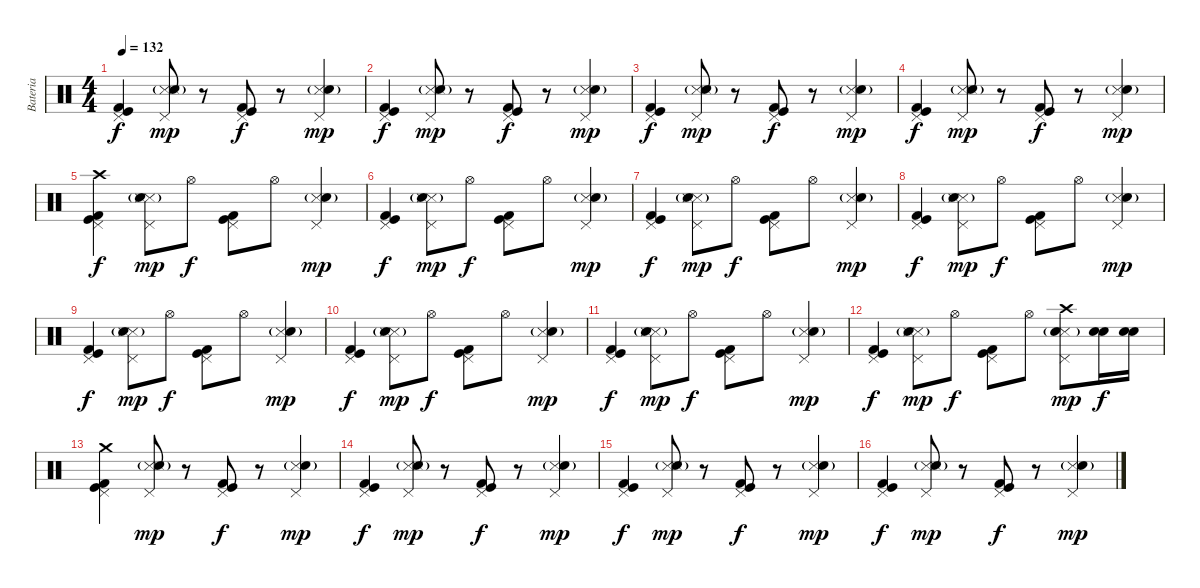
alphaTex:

\track ("Bateria" "Bateria") {instrument percussion}
\staff {score}
\articulation defaults
\ts (4 4)
\tempo 132
\clef neutral
\ks c
("Pedal Hi-Hat (hit)" "Kick (hit) 2" "Kick (hit)").4{dy f} ("Pedal Hi-Hat (hit)" "Snare (side stick) 3" "Snare (side stick) 3" "Electric Snare (hit)"{g}).8{dy mp} r.8 ("Pedal Hi-Hat (hit)" "Kick (hit) 2" "Kick (hit)").8{dy f} r.8 ("Pedal Hi-Hat (hit)" "Snare (side stick) 3" "Electric Snare (hit)"{g}).4{dy mp} |
("Pedal Hi-Hat (hit)" "Kick (hit) 2" "Kick (hit)").4{dy f} ("Pedal Hi-Hat (hit)" "Snare (side stick) 3" "Snare (side stick) 3" "Electric Snare (hit)"{g}).8{dy mp} r.8 ("Pedal Hi-Hat (hit)" "Kick (hit) 2" "Kick (hit)").8{dy f} r.8 ("Pedal Hi-Hat (hit)" "Snare (side stick) 3" "Electric Snare (hit)"{g}).4{dy mp} |
("Pedal Hi-Hat (hit)" "Kick (hit) 2" "Kick (hit)").4{dy f} ("Pedal Hi-Hat (hit)" "Snare (side stick) 3" "Snare (side stick) 3" "Electric Snare (hit)"{g}).8{dy mp} r.8 ("Pedal Hi-Hat (hit)" "Kick (hit) 2" "Kick (hit)").8{dy f} r.8 ("Pedal Hi-Hat (hit)" "Snare (side stick) 3" "Electric Snare (hit)"{g}).4{dy mp} |
("Pedal Hi-Hat (hit)" "Kick (hit) 2" "Kick (hit)").4{dy f} ("Pedal Hi-Hat (hit)" "Snare (side stick) 3" "Snare (side stick) 3" "Electric Snare (hit)"{g}).8{dy mp} r.8 ("Pedal Hi-Hat (hit)" "Kick (hit) 2" "Kick (hit)").8{dy f} r.8 ("Pedal Hi-Hat (hit)" "Snare (side stick) 3" "Electric Snare (hit)"{g}).4{dy mp} |
("Pedal Hi-Hat (hit)" "Crash high (hit)" "Kick (hit) 2" "Kick (hit)").4{dy f} ("Pedal Hi-Hat (hit)" "Snare (side stick) 3" "Snare (side stick) 3" "Electric Snare (hit)"{g}).8{dy mp} "Hi-Hat (open)".8{dy f} ("Pedal Hi-Hat (hit)" "Kick (hit) 2" "Kick (hit)").8 "Hi-Hat (open)".8 ("Pedal Hi-Hat (hit)" "Snare (side stick) 3" "Electric Snare (hit)"{g}).4{dy mp} |
("Pedal Hi-Hat (hit)" "Kick (hit) 2" "Kick (hit)").4{dy f} ("Pedal Hi-Hat (hit)" "Snare (side stick) 3" "Snare (side stick) 3" "Electric Snare (hit)"{g}).8{dy mp} "Hi-Hat (open)".8{dy f} ("Pedal Hi-Hat (hit)" "Kick (hit) 2" "Kick (hit)").8 "Hi-Hat (open)".8 ("Pedal Hi-Hat (hit)" "Snare (side stick) 3" "Electric Snare (hit)"{g}).4{dy mp} |
("Pedal Hi-Hat (hit)" "Kick (hit) 2" "Kick (hit)").4{dy f} ("Pedal Hi-Hat (hit)" "Snare (side stick) 3" "Snare (side stick) 3" "Electric Snare (hit)"{g}).8{dy mp} "Hi-Hat (open)".8{dy f} ("Pedal Hi-Hat (hit)" "Kick (hit) 2" "Kick (hit)").8 "Hi-Hat (open)".8 ("Pedal Hi-Hat (hit)" "Snare (side stick) 3" "Electric Snare (hit)"{g}).4{dy mp} |
("Pedal Hi-Hat (hit)" "Kick (hit) 2" "Kick (hit)").4{dy f} ("Pedal Hi-Hat (hit)" "Snare (side stick) 3" "Snare (side stick) 3" "Electric Snare (hit)"{g}).8{dy mp} "Hi-Hat (open)".8{dy f} ("Pedal Hi-Hat (hit)" "Kick (hit) 2" "Kick (hit)").8 "Hi-Hat (open)".8 ("Pedal Hi-Hat (hit)" "Snare (side stick) 3" "Electric Snare (hit)"{g}).4{dy mp} |
("Pedal Hi-Hat (hit)" "Kick (hit) 2" "Kick (hit)").4{dy f} ("Pedal Hi-Hat (hit)" "Snare (side stick) 3" "Snare (side stick) 3" "Electric Snare (hit)"{g}).8{dy mp} "Hi-Hat (open)".8{dy f} ("Pedal Hi-Hat (hit)" "Kick (hit) 2" "Kick (hit)").8 "Hi-Hat (open)".8 ("Pedal Hi-Hat (hit)" "Snare (side stick) 3" "Electric Snare (hit)"{g}).4{dy mp} |
("Pedal Hi-Hat (hit)" "Kick (hit) 2" "Kick (hit)").4{dy f} ("Pedal Hi-Hat (hit)" "Snare (side stick) 3" "Snare (side stick) 3" "Electric Snare (hit)"{g}).8{dy mp} "Hi-Hat (open)".8{dy f} ("Pedal Hi-Hat (hit)" "Kick (hit) 2" "Kick (hit)").8 "Hi-Hat (open)".8 ("Pedal Hi-Hat (hit)" "Snare (side stick) 3" "Electric Snare (hit)"{g}).4{dy mp} |
("Pedal Hi-Hat (hit)" "Kick (hit) 2" "Kick (hit)").4{dy f} ("Pedal Hi-Hat (hit)" "Snare (side stick) 3" "Snare (side stick) 3" "Electric Snare (hit)"{g}).8{dy mp} "Hi-Hat (open)".8{dy f} ("Pedal Hi-Hat (hit)" "Kick (hit) 2" "Kick (hit)").8 "Hi-Hat (open)".8 ("Pedal Hi-Hat (hit)" "Snare (side stick) 3" "Electric Snare (hit)"{g}).4{dy mp} |
("Pedal Hi-Hat (hit)" "Kick (hit) 2" "Kick (hit)").4{dy f} ("Pedal Hi-Hat (hit)" "Snare (side stick) 3" "Snare (side stick) 3" "Electric Snare (hit)"{g}).8{dy mp} "Hi-Hat (open)".8{dy f} ("Pedal Hi-Hat (hit)" "Kick (hit) 2" "Kick (hit)").8 "Hi-Hat (open)".8 ("Pedal Hi-Hat (hit)" "Crash high (hit)" "Snare (side stick) 3" "Electric Snare (hit)"{g}).8{dy mp} ("Snare (hit) 2" "Electric Snare (hit)").16{dy f} ("Snare (hit) 2" "Electric Snare (hit)").16 |
("Pedal Hi-Hat (hit)" "Crash medium (hit)" "Kick (hit) 2" "Kick (hit)").4 ("Pedal Hi-Hat (hit)" "Snare (side stick) 3" "Snare (side stick) 3" "Electric Snare (hit)"{g}).8{dy mp} r.8 ("Pedal Hi-Hat (hit)" "Kick (hit) 2" "Kick (hit)").8{dy f} r.8 ("Pedal Hi-Hat (hit)" "Snare (side stick) 3" "Electric Snare (hit)"{g}).4{dy mp} |
("Pedal Hi-Hat (hit)" "Kick (hit) 2" "Kick (hit)").4{dy f} ("Pedal Hi-Hat (hit)" "Snare (side stick) 3" "Snare (side stick) 3" "Electric Snare (hit)"{g}).8{dy mp} r.8 ("Pedal Hi-Hat (hit)" "Kick (hit) 2" "Kick (hit)").8{dy f} r.8 ("Pedal Hi-Hat (hit)" "Snare (side stick) 3" "Electric Snare (hit)"{g}).4{dy mp} |
("Pedal Hi-Hat (hit)" "Kick (hit) 2" "Kick (hit)").4{dy f} ("Pedal Hi-Hat (hit)" "Snare (side stick) 3" "Snare (side stick) 3" "Electric Snare (hit)"{g}).8{dy mp} r.8 ("Pedal Hi-Hat (hit)" "Kick (hit) 2" "Kick (hit)").8{dy f} r.8 ("Pedal Hi-Hat (hit)" "Snare (side stick) 3" "Electric Snare (hit)"{g}).4{dy mp} |
("Pedal Hi-Hat (hit)" "Kick (hit) 2" "Kick (hit)").4{dy f} ("Pedal Hi-Hat (hit)" "Snare (side stick) 3" "Snare (side stick) 3" "Electric Snare (hit)"{g}).8{dy mp} r.8 ("Pedal Hi-Hat (hit)" "Kick (hit) 2" "Kick (hit)").8{dy f} r.8 ("Pedal Hi-Hat (hit)" "Snare (side stick) 3" "Electric Snare (hit)"{g}).4{dy mp}
